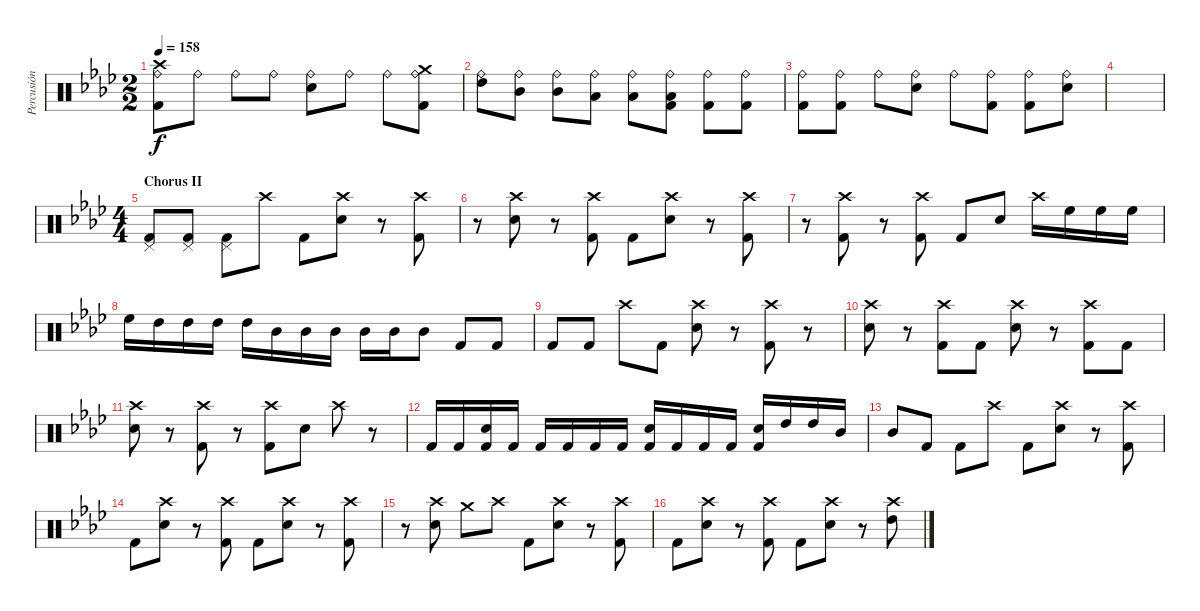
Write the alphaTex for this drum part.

\track ("Percusión" "Percusión") {instrument percussion}
\staff {score}
\articulation defaults
\ts (2 2)
\tempo 158
\clef neutral
\ks ab
("Crash high (hit)" "Ride (bell)" "Kick (hit) 2").8{dy f} "Ride (bell)".8 "Ride (bell)".8 "Ride (bell)".8 ("Ride (bell)" "Snare (hit) 2").8 "Ride (bell)".8 "Ride (bell)".8 ("Crash medium (hit)" "Ride (bell)" "Kick (hit) 2").8 |
("Ride (bell)" "High Tom (hit)").8 ("Ride (bell)" "Mid Tom (hit)").8 ("Ride (bell)" "Mid Tom (hit)").8 ("Ride (bell)" "Low Tom (hit)").8 ("Ride (bell)" "Low Tom (hit)").8 ("Ride (bell)" "Low Tom (hit)" "Kick (hit) 2").8 ("Ride (bell)" "Kick (hit) 2").8 ("Ride (bell)" "Kick (hit) 2").8 |
("Ride (bell)" "Kick (hit) 2").8 ("Ride (bell)" "Kick (hit) 2").8 "Ride (bell)".8 ("Ride (bell)" "Snare (hit) 2").8 "Ride (bell)".8 ("Ride (bell)" "Kick (hit) 2").8 ("Ride (bell)" "Kick (hit) 2").8 ("Ride (bell)" "Snare (hit) 2").8 |
|
\ts (4 4)
\section ("" "Chorus II")
("Pedal Hi-Hat (hit)" "Kick (hit) 2").8 ("Pedal Hi-Hat (hit)" "Kick (hit) 2").8 ("Pedal Hi-Hat (hit)" "Kick (hit) 2").8 "Crash high (hit)".8 "Kick (hit) 2".8 ("Crash high (hit)" "Snare (hit) 2").8 r.8 ("Crash high (hit)" "Kick (hit) 2").8 |
r.8 ("Crash high (hit)" "Snare (hit) 2").8 r.8 ("Crash high (hit)" "Kick (hit) 2").8 "Kick (hit) 2".8 ("Crash high (hit)" "Snare (hit) 2").8 r.8 ("Crash high (hit)" "Kick (hit) 2").8 |
r.8 ("Crash high (hit)" "Kick (hit) 2").8 r.8 ("Crash high (hit)" "Kick (hit) 2").8 "Kick (hit) 2".8 "Snare (hit) 2".8 "Crash high (hit)".16 "High Floor Tom (hit)".16 "High Floor Tom (hit)".16 "High Floor Tom (hit)".16 |
"High Floor Tom (hit)".16 "High Tom (hit)".16 "High Tom (hit)".16 "High Tom (hit)".16 "High Tom (hit)".16 "Mid Tom (hit)".16 "Mid Tom (hit)".16 "Mid Tom (hit)".16 "Mid Tom (hit)".16 "Mid Tom (hit)".16 "Mid Tom (hit)".8 "Kick (hit) 2".8 "Kick (hit) 2".8 |
"Kick (hit) 2".8 "Kick (hit) 2".8 "Crash high (hit)".8 "Kick (hit) 2".8 ("Crash high (hit)" "Snare (hit) 2").8 r.8 ("Crash high (hit)" "Kick (hit) 2").8 r.8 |
("Crash high (hit)" "Snare (hit) 2").8 r.8 ("Crash high (hit)" "Kick (hit) 2").8 "Kick (hit) 2".8 ("Crash high (hit)" "Snare (hit) 2").8 r.8 ("Crash high (hit)" "Kick (hit) 2").8 "Kick (hit) 2".8 |
("Crash high (hit)" "Snare (hit) 2").8 r.8 ("Crash high (hit)" "Kick (hit) 2").8 r.8 ("Crash high (hit)" "Kick (hit) 2").8 "Snare (hit) 2".8 "Crash high (hit)".8 r.8 |
"Kick (hit) 2".16 "Kick (hit) 2".16 ("Snare (hit) 2" "Kick (hit) 2").16 "Kick (hit) 2".16 "Kick (hit) 2".16 "Kick (hit) 2".16 "Kick (hit) 2".16 "Kick (hit) 2".16 ("Snare (hit) 2" "Kick (hit) 2").16 "Kick (hit) 2".16 "Kick (hit) 2".16 "Kick (hit) 2".16 ("Snare (hit) 2" "Kick (hit) 2").16 "High Tom (hit)".16 "High Tom (hit)".16 "Mid Tom (hit)".16 |
"Mid Tom (hit)".8 "Kick (hit) 2".8 "Kick (hit) 2".8 "Crash high (hit)".8 "Kick (hit) 2".8 ("Crash high (hit)" "Snare (hit) 2").8 r.8 ("Crash high (hit)" "Kick (hit) 2").8 |
"Kick (hit) 2".8 ("Crash high (hit)" "Snare (hit) 2").8 r.8 ("Crash high (hit)" "Kick (hit) 2").8 "Kick (hit) 2".8 ("Crash high (hit)" "Snare (hit) 2").8 r.8 ("Crash high (hit)" "Kick (hit) 2").8 |
r.8 ("Crash high (hit)" "Snare (hit) 2").8 "Crash medium (hit)".8 "Crash high (hit)".8 "Kick (hit) 2".8 ("Crash high (hit)" "Snare (hit) 2").8 r.8 ("Crash high (hit)" "Kick (hit) 2").8 |
"Kick (hit) 2".8 ("Crash high (hit)" "Snare (hit) 2").8 r.8 ("Crash high (hit)" "Kick (hit) 2").8 "Kick (hit) 2".8 ("Crash high (hit)" "Snare (hit) 2").8 r.8 ("Crash high (hit)" "High Tom (hit)").8
